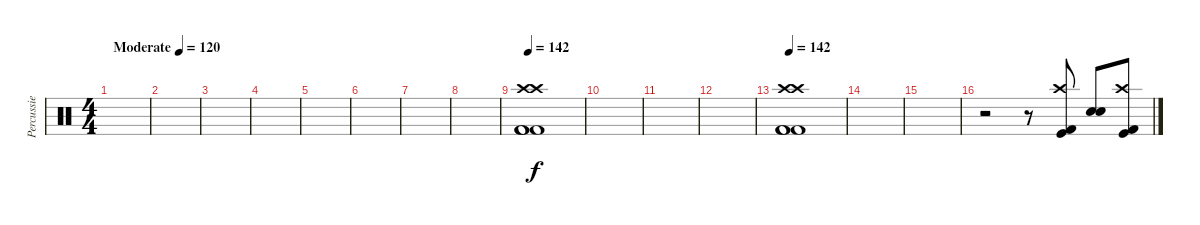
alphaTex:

\track ("Percussie" "Percussie") {instrument percussion}
\staff {score}
\articulation defaults
\ts (4 4)
\tempo (120 "Moderate")
\clef neutral
\ks c
|
|
|
|
|
|
|
|
\tempo 142
("Kick (hit) 2" "Kick (hit) 2" "Kick (hit) 2" "Crash high (hit)" "Crash high (hit)").1 |
|
|
|
\tempo 142
("Kick (hit) 2" "Kick (hit) 2" "Kick (hit) 2" "Crash high (hit)" "Crash high (hit)").1 |
|
|
r.2 r.8 ("Kick (hit)" "Kick (hit) 2" "Crash high (hit)").8 ("Snare (hit) 2" "Electric Snare (hit)").8 ("Kick (hit)" "Kick (hit) 2" "Crash high (hit)").8
